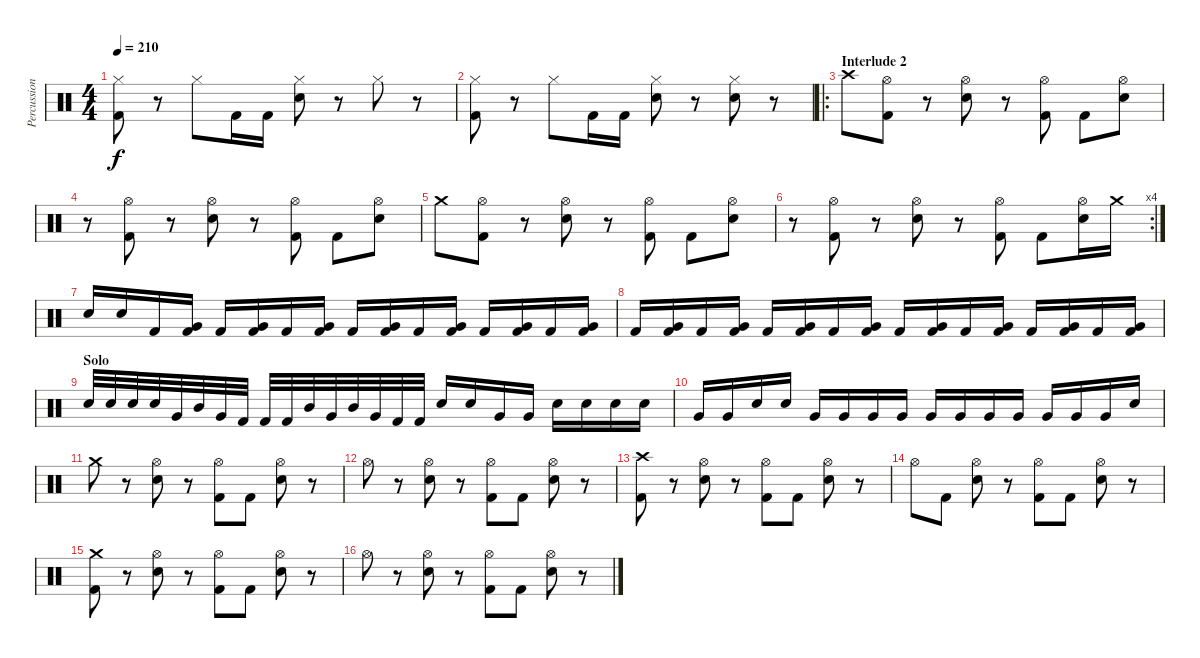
\track ("Percussion" "Percussion") {instrument percussion}
\staff {score}
\articulation defaults
\ts (4 4)
\tempo 210
\clef neutral
\ks c
("Hi-Hat (closed)" "Kick (hit) 2").8{dy f} r.8 "Hi-Hat (closed)".8 "Kick (hit) 2".16 "Kick (hit) 2".16 ("Hi-Hat (closed)" "Electric Snare (hit)").8 r.8 "Hi-Hat (closed)".8 r.8 |
("Hi-Hat (closed)" "Kick (hit) 2").8 r.8 "Hi-Hat (closed)".8 "Kick (hit) 2".16 "Kick (hit) 2".16 ("Hi-Hat (closed)" "Electric Snare (hit)").8 r.8 ("Hi-Hat (closed)" "Electric Snare (hit)").8 r.8 |
\ro
\section ("" "Interlude 2")
"Crash high (hit)".8 ("Hi-Hat (open)" "Kick (hit) 2").8 r.8 ("Hi-Hat (open)" "Electric Snare (hit)").8 r.8 ("Hi-Hat (open)" "Kick (hit) 2").8 "Kick (hit) 2".8 ("Hi-Hat (open)" "Electric Snare (hit)").8 |
r.8 ("Hi-Hat (open)" "Kick (hit) 2").8 r.8 ("Hi-Hat (open)" "Electric Snare (hit)").8 r.8 ("Hi-Hat (open)" "Kick (hit) 2").8 "Kick (hit) 2".8 ("Hi-Hat (open)" "Electric Snare (hit)").8 |
"Crash medium (hit)".8 ("Hi-Hat (open)" "Kick (hit) 2").8 r.8 ("Hi-Hat (open)" "Electric Snare (hit)").8 r.8 ("Hi-Hat (open)" "Kick (hit) 2").8 "Kick (hit) 2".8 ("Hi-Hat (open)" "Electric Snare (hit)").8 |
\rc 4
r.8 ("Hi-Hat (open)" "Kick (hit) 2").8 r.8 ("Hi-Hat (open)" "Electric Snare (hit)").8 r.8 ("Hi-Hat (open)" "Kick (hit) 2").8 "Kick (hit) 2".8 ("Hi-Hat (open)" "Electric Snare (hit)").16 "Crash medium (hit)".16 |
"Electric Snare (hit)".16 "Electric Snare (hit)".16 "Kick (hit) 2".16 ("Very Low Tom (hit)" "Kick (hit) 2").16 "Kick (hit) 2".16 ("Very Low Tom (hit)" "Kick (hit) 2").16 "Kick (hit) 2".16 ("Very Low Tom (hit)" "Kick (hit) 2").16 "Kick (hit) 2".16 ("Very Low Tom (hit)" "Kick (hit) 2").16 "Kick (hit) 2".16 ("Very Low Tom (hit)" "Kick (hit) 2").16 "Kick (hit) 2".16 ("Very Low Tom (hit)" "Kick (hit) 2").16 "Kick (hit) 2".16 ("Very Low Tom (hit)" "Kick (hit) 2").16 |
"Kick (hit) 2".16 ("Very Low Tom (hit)" "Kick (hit) 2").16 "Kick (hit) 2".16 ("Very Low Tom (hit)" "Kick (hit) 2").16 "Kick (hit) 2".16 ("Very Low Tom (hit)" "Kick (hit) 2").16 "Kick (hit) 2".16 ("Very Low Tom (hit)" "Kick (hit) 2").16 "Kick (hit) 2".16 ("Very Low Tom (hit)" "Kick (hit) 2").16 "Kick (hit) 2".16 ("Very Low Tom (hit)" "Kick (hit) 2").16 "Kick (hit) 2".16 ("Very Low Tom (hit)" "Kick (hit) 2").16 "Kick (hit) 2".16 ("Very Low Tom (hit)" "Kick (hit) 2").16 |
\section ("" "Solo")
"Electric Snare (hit)".32 "Electric Snare (hit)".32 "Electric Snare (hit)".32 "Electric Snare (hit)".32 "Very Low Tom (hit)".32 "Mid Tom (hit)".32 "Very Low Tom (hit)".32 "Kick (hit) 2".32 "Kick (hit) 2".32 "Kick (hit) 2".32 "Mid Tom (hit)".32 "Very Low Tom (hit)".32 "Mid Tom (hit)".32 "Very Low Tom (hit)".32 "Kick (hit) 2".32 "Kick (hit) 2".32 "Electric Snare (hit)".16 "Electric Snare (hit)".16 "Very Low Tom (hit)".16 "Very Low Tom (hit)".16 "Electric Snare (hit)".16 "Electric Snare (hit)".16 "Electric Snare (hit)".16 "Electric Snare (hit)".16 |
"Very Low Tom (hit)".16 "Very Low Tom (hit)".16 "Electric Snare (hit)".16 "Electric Snare (hit)".16 "Very Low Tom (hit)".16 "Very Low Tom (hit)".16 "Very Low Tom (hit)".16 "Very Low Tom (hit)".16 "Very Low Tom (hit)".16 "Very Low Tom (hit)".16 "Very Low Tom (hit)".16 "Very Low Tom (hit)".16 "Very Low Tom (hit)".16 "Very Low Tom (hit)".16 "Very Low Tom (hit)".16 "Electric Snare (hit)".16 |
"Crash medium (hit)".8 r.8 ("Hi-Hat (open)" "Electric Snare (hit)").8 r.8 ("Hi-Hat (open)" "Kick (hit) 2").8 "Kick (hit) 2".8 ("Hi-Hat (open)" "Electric Snare (hit)").8 r.8 |
"Hi-Hat (open)".8 r.8 ("Hi-Hat (open)" "Electric Snare (hit)").8 r.8 ("Hi-Hat (open)" "Kick (hit) 2").8 "Kick (hit) 2".8 ("Hi-Hat (open)" "Electric Snare (hit)").8 r.8 |
("Crash high (hit)" "Kick (hit) 2").8 r.8 ("Hi-Hat (open)" "Electric Snare (hit)").8 r.8 ("Hi-Hat (open)" "Kick (hit) 2").8 "Kick (hit) 2".8 ("Hi-Hat (open)" "Electric Snare (hit)").8 r.8 |
"Hi-Hat (open)".8 "Kick (hit) 2".8 ("Hi-Hat (open)" "Electric Snare (hit)").8 r.8 ("Hi-Hat (open)" "Kick (hit) 2").8 "Kick (hit) 2".8 ("Hi-Hat (open)" "Electric Snare (hit)").8 r.8 |
("Crash medium (hit)" "Kick (hit) 2").8 r.8 ("Hi-Hat (open)" "Electric Snare (hit)").8 r.8 ("Hi-Hat (open)" "Kick (hit) 2").8 "Kick (hit) 2".8 ("Hi-Hat (open)" "Electric Snare (hit)").8 r.8 |
"Hi-Hat (open)".8 r.8 ("Hi-Hat (open)" "Electric Snare (hit)").8 r.8 ("Hi-Hat (open)" "Kick (hit) 2").8 "Kick (hit) 2".8 ("Hi-Hat (open)" "Electric Snare (hit)").8 r.8
